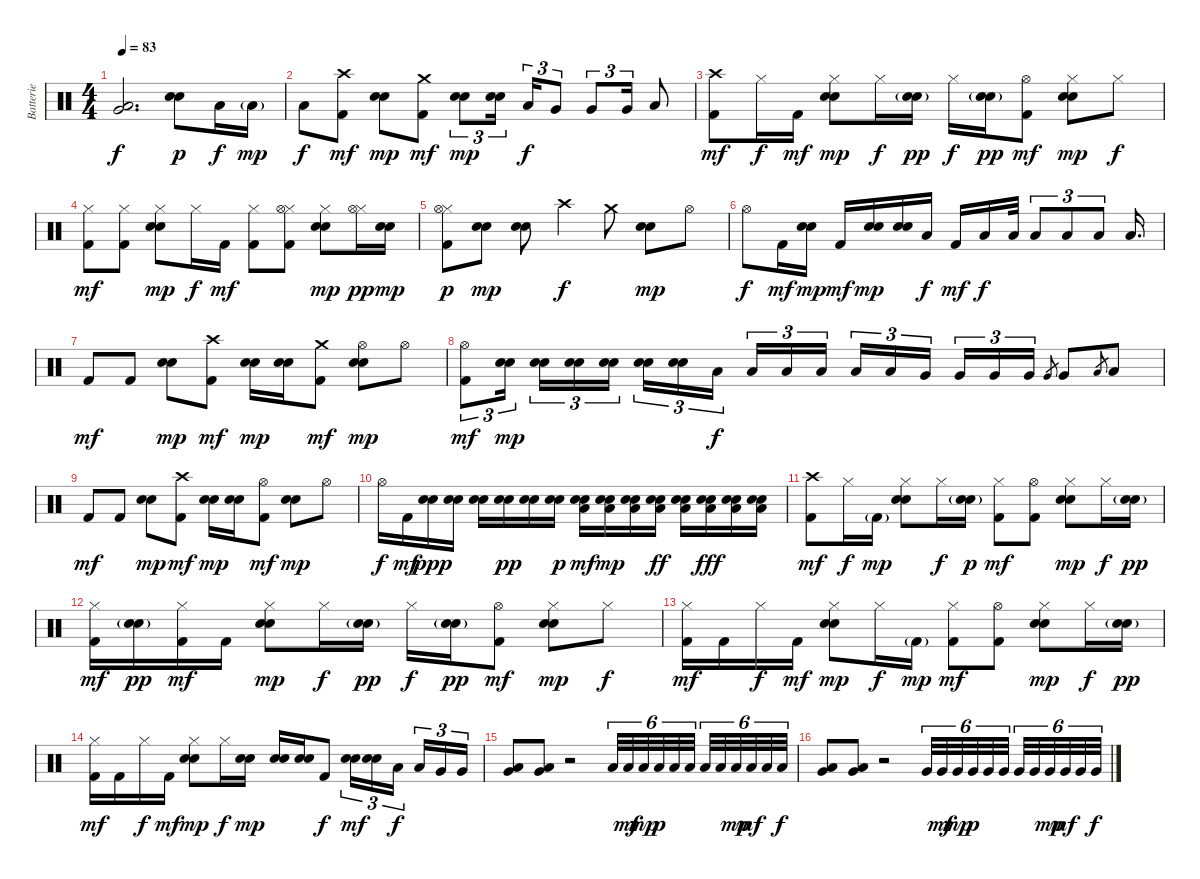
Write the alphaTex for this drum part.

\track ("Batterie" "Batterie") {instrument percussion}
\staff {score}
\articulation defaults
\ts (4 4)
\tempo 83
\clef neutral
\ks c
("Very Low Tom (hit)" "Low Floor Tom (hit)").2{d dy f} ("Electric Snare (hit)" "Snare (hit) 2").8{dy p} "Low Floor Tom (hit)".16{dy f} "Low Floor Tom (hit)"{g}.16{dy mp} |
"Low Floor Tom (hit)".8{dy f} ("Crash high (hit)" "Kick (hit) 2").8{dy mf} ("Electric Snare (hit)" "Snare (hit) 2").8{dy mp} ("Crash medium (hit)" "Kick (hit) 2").8{dy mf} ("Electric Snare (hit)" "Snare (hit) 2").8{tu (3 2) dy mp} ("Electric Snare (hit)" "Snare (hit) 2").16{tu (3 2)} "Low Tom (hit)".16{tu (3 2) dy f} "Very Low Tom (hit)".8{tu (3 2)} "Very Low Tom (hit)".8{tu (3 2)} "Very Low Tom (hit)".16{tu (3 2)} "Low Floor Tom (hit)".8 |
("Crash high (hit)" "Kick (hit) 2").8{dy mf} "Hi-Hat (closed)".16{dy f} "Kick (hit) 2".16{dy mf} ("Hi-Hat (closed)" "Electric Snare (hit)" "Snare (hit) 2").8{dy mp} "Hi-Hat (closed)".16{dy f} ("Electric Snare (hit)"{g} "Snare (hit) 2"{g}).16{dy pp} "Hi-Hat (closed)".16{dy f} ("Electric Snare (hit)"{g} "Snare (hit) 2"{g}).16{dy pp} ("Hi-Hat (open)" "Kick (hit) 2").8{dy mf} ("Hi-Hat (closed)" "Electric Snare (hit)" "Snare (hit) 2").8{dy mp} "Hi-Hat (closed)".8{dy f} |
("Hi-Hat (closed)" "Kick (hit) 2").8{dy mf} ("Hi-Hat (closed)" "Kick (hit) 2").8 ("Hi-Hat (closed)" "Electric Snare (hit)" "Snare (hit) 2").8{dy mp} "Hi-Hat (closed)".16{dy f} "Kick (hit) 2".16{dy mf} ("Hi-Hat (closed)" "Kick (hit) 2").8 ("Hi-Hat (closed)" "Hi-Hat (open)" "Kick (hit) 2").8 ("Hi-Hat (closed)" "Electric Snare (hit)" "Snare (hit) 2").8{dy mp} ("Hi-Hat (closed)" "Hi-Hat (open)").16{dy pp} ("Electric Snare (hit)" "Snare (hit) 2").16{dy mp} |
("Hi-Hat (closed)" "Hi-Hat (open)" "Kick (hit) 2").8{dy p} ("Electric Snare (hit)" "Snare (hit) 2").8{dy mp} ("Electric Snare (hit)" "Snare (hit) 2").8 "Crash high (hit)".4{dy f} "Crash medium (hit)".8 ("Electric Snare (hit)" "Snare (hit) 2").8{dy mp} "Hi-Hat (open)".8 |
"Hi-Hat (open)".8{dy f} "Kick (hit) 2".16{dy mf} ("Electric Snare (hit)" "Snare (hit) 2").16{dy mp} "Kick (hit) 2".16{dy mf} ("Electric Snare (hit)" "Snare (hit) 2").16{dy mp} ("Electric Snare (hit)" "Snare (hit) 2").16 "Low Tom (hit)".16{dy f} "Kick (hit) 2".16{dy mf} "Low Tom (hit)".16{dy f} "Low Tom (hit)".32 "Low Tom (hit)".8{tu (3 2)} "Low Floor Tom (hit)".8{tu (3 2)} "Low Floor Tom (hit)".8{tu (3 2)} "Low Floor Tom (hit)".16{d} |
"Kick (hit) 2".8{dy mf} "Kick (hit) 2".8 ("Electric Snare (hit)" "Snare (hit) 2").8{dy mp} ("Crash high (hit)" "Kick (hit) 2").8{dy mf} ("Electric Snare (hit)" "Snare (hit) 2").16{dy mp} ("Electric Snare (hit)" "Snare (hit) 2").16 ("Crash medium (hit)" "Kick (hit) 2").8{dy mf} ("Hi-Hat (open)" "Electric Snare (hit)" "Snare (hit) 2").8{dy mp} "Hi-Hat (open)".8 |
("Hi-Hat (open)" "Kick (hit) 2").8{tu (3 2) dy mf} ("Electric Snare (hit)" "Snare (hit) 2").16{tu (3 2) dy mp} ("Electric Snare (hit)" "Snare (hit) 2").16{tu (3 2)} ("Electric Snare (hit)" "Snare (hit) 2").16{tu (3 2)} ("Electric Snare (hit)" "Snare (hit) 2").16{tu (3 2)} ("Electric Snare (hit)" "Snare (hit) 2").16{tu (3 2)} ("Electric Snare (hit)" "Snare (hit) 2").16{tu (3 2)} "Low Tom (hit)".16{tu (3 2) dy f} "Low Tom (hit)".16{tu (3 2)} "Low Tom (hit)".16{tu (3 2)} "Low Tom (hit)".16{tu (3 2)} "Low Tom (hit)".16{tu (3 2)} "Low Tom (hit)".16{tu (3 2)} "Very Low Tom (hit)".16{tu (3 2)} "Very Low Tom (hit)".16{tu (3 2)} "Very Low Tom (hit)".16{tu (3 2)} "Very Low Tom (hit)".16{tu (3 2)} "Very Low Tom (hit)".8{gr} "Very Low Tom (hit)".8 "Low Floor Tom (hit)".8{gr} "Low Floor Tom (hit)".8 |
"Kick (hit) 2".8{dy mf} "Kick (hit) 2".8 ("Electric Snare (hit)" "Snare (hit) 2").8{dy mp} ("Crash high (hit)" "Kick (hit) 2").8{dy mf} ("Electric Snare (hit)" "Snare (hit) 2").16{dy mp} ("Electric Snare (hit)" "Snare (hit) 2").16 ("Hi-Hat (open)" "Kick (hit) 2").8{dy mf} ("Electric Snare (hit)" "Snare (hit) 2").8{dy mp} "Hi-Hat (open)".8 |
"Hi-Hat (open)".16{dy f} "Kick (hit) 2".16{dy mf} ("Electric Snare (hit)" "Snare (hit) 2").16{dy ppp} ("Electric Snare (hit)" "Snare (hit) 2").16 ("Electric Snare (hit)" "Snare (hit) 2").16 ("Electric Snare (hit)" "Snare (hit) 2").16{dy pp} ("Electric Snare (hit)" "Snare (hit) 2").16 ("Electric Snare (hit)" "Snare (hit) 2").16{dy p} ("Electric Snare (hit)" "Snare (hit) 2" "Low Floor Tom (hit)").16{dy mf} ("Electric Snare (hit)" "Snare (hit) 2" "Low Floor Tom (hit)").16{dy mp} ("Electric Snare (hit)" "Snare (hit) 2" "Low Floor Tom (hit)").16 ("Electric Snare (hit)" "Snare (hit) 2" "Low Floor Tom (hit)").16{dy ff} ("Electric Snare (hit)" "Snare (hit) 2" "Low Floor Tom (hit)").16 ("Electric Snare (hit)" "Snare (hit) 2" "Low Floor Tom (hit)").16{dy fff} ("Electric Snare (hit)" "Snare (hit) 2" "Low Floor Tom (hit)").16 ("Electric Snare (hit)" "Snare (hit) 2" "Low Floor Tom (hit)").16 |
("Crash high (hit)" "Kick (hit) 2").8{dy mf} "Hi-Hat (closed)".16{dy f} "Kick (hit) 2"{g}.16{dy mp} ("Hi-Hat (closed)" "Electric Snare (hit)" "Snare (hit) 2").8 "Hi-Hat (closed)".16{dy f} ("Electric Snare (hit)"{g} "Snare (hit) 2"{g}).16{dy p} ("Hi-Hat (closed)" "Kick (hit) 2").8{dy mf} ("Hi-Hat (open)" "Kick (hit) 2").8 ("Hi-Hat (closed)" "Electric Snare (hit)" "Snare (hit) 2").8{dy mp} "Hi-Hat (closed)".16{dy f} ("Electric Snare (hit)"{g} "Snare (hit) 2"{g}).16{dy pp} |
("Hi-Hat (closed)" "Kick (hit) 2").16{dy mf} ("Electric Snare (hit)"{g} "Snare (hit) 2"{g}).16{dy pp} ("Hi-Hat (closed)" "Kick (hit) 2").16{dy mf} "Kick (hit) 2".16 ("Hi-Hat (closed)" "Electric Snare (hit)" "Snare (hit) 2").8{dy mp} "Hi-Hat (closed)".16{dy f} ("Electric Snare (hit)"{g} "Snare (hit) 2"{g}).16{dy pp} "Hi-Hat (closed)".16{dy f} ("Electric Snare (hit)"{g} "Snare (hit) 2"{g}).16{dy pp} ("Hi-Hat (open)" "Kick (hit) 2").8{dy mf} ("Hi-Hat (closed)" "Electric Snare (hit)" "Snare (hit) 2").8{dy mp} "Hi-Hat (closed)".8{dy f} |
("Hi-Hat (closed)" "Kick (hit) 2").16{dy mf} "Kick (hit) 2".16 "Hi-Hat (closed)".16{dy f} "Kick (hit) 2".16{dy mf} ("Hi-Hat (closed)" "Electric Snare (hit)" "Snare (hit) 2").8{dy mp} "Hi-Hat (closed)".16{dy f} "Kick (hit) 2"{g}.16{dy mp} ("Hi-Hat (closed)" "Kick (hit) 2").8{dy mf} ("Hi-Hat (open)" "Kick (hit) 2").8 ("Hi-Hat (closed)" "Electric Snare (hit)" "Snare (hit) 2").8{dy mp} "Hi-Hat (closed)".16{dy f} ("Electric Snare (hit)"{g} "Snare (hit) 2"{g}).16{dy pp} |
("Hi-Hat (closed)" "Kick (hit) 2").16{dy mf} "Kick (hit) 2".16 "Hi-Hat (closed)".16{dy f} "Kick (hit) 2".16{dy mf} ("Hi-Hat (closed)" "Electric Snare (hit)" "Snare (hit) 2").8{dy mp} "Hi-Hat (closed)".16{dy f} ("Electric Snare (hit)" "Snare (hit) 2").16{dy mp} ("Electric Snare (hit)" "Snare (hit) 2").16 ("Electric Snare (hit)" "Snare (hit) 2").16 "Kick (hit) 2".8{dy f} ("Electric Snare (hit)" "Snare (hit) 2").16{tu (3 2) dy mf} ("Electric Snare (hit)" "Snare (hit) 2").16{tu (3 2)} "Low Tom (hit)".16{tu (3 2) dy f} "Low Tom (hit)".16{tu (3 2)} "Very Low Tom (hit)".16{tu (3 2)} "Very Low Tom (hit)".16{tu (3 2)} |
("Very Low Tom (hit)" "Low Floor Tom (hit)").8 ("Very Low Tom (hit)" "Low Floor Tom (hit)").8 r.2 "Low Floor Tom (hit)".32{tu (6 4)} "Low Floor Tom (hit)".32{tu (6 4) dy mf} "Low Floor Tom (hit)".32{tu (6 4) dy mp} "Low Floor Tom (hit)".32{tu (6 4) dy p} "Low Floor Tom (hit)".32{tu (6 4)} "Low Floor Tom (hit)".32{tu (6 4)} "Low Floor Tom (hit)".32{tu (6 4)} "Low Floor Tom (hit)".32{tu (6 4)} "Low Floor Tom (hit)".32{tu (6 4) dy mp} "Low Floor Tom (hit)".32{tu (6 4) dy mf} "Low Floor Tom (hit)".32{tu (6 4)} "Low Floor Tom (hit)".32{tu (6 4) dy f} |
("Very Low Tom (hit)" "Low Floor Tom (hit)").8 ("Very Low Tom (hit)" "Low Floor Tom (hit)").8 r.2 "Very Low Tom (hit)".32{tu (6 4)} "Very Low Tom (hit)".32{tu (6 4) dy mf} "Very Low Tom (hit)".32{tu (6 4) dy mp} "Very Low Tom (hit)".32{tu (6 4) dy p} "Very Low Tom (hit)".32{tu (6 4)} "Very Low Tom (hit)".32{tu (6 4)} "Very Low Tom (hit)".32{tu (6 4)} "Very Low Tom (hit)".32{tu (6 4)} "Very Low Tom (hit)".32{tu (6 4) dy mp} "Very Low Tom (hit)".32{tu (6 4) dy mf} "Very Low Tom (hit)".32{tu (6 4)} "Very Low Tom (hit)".32{tu (6 4) dy f}
